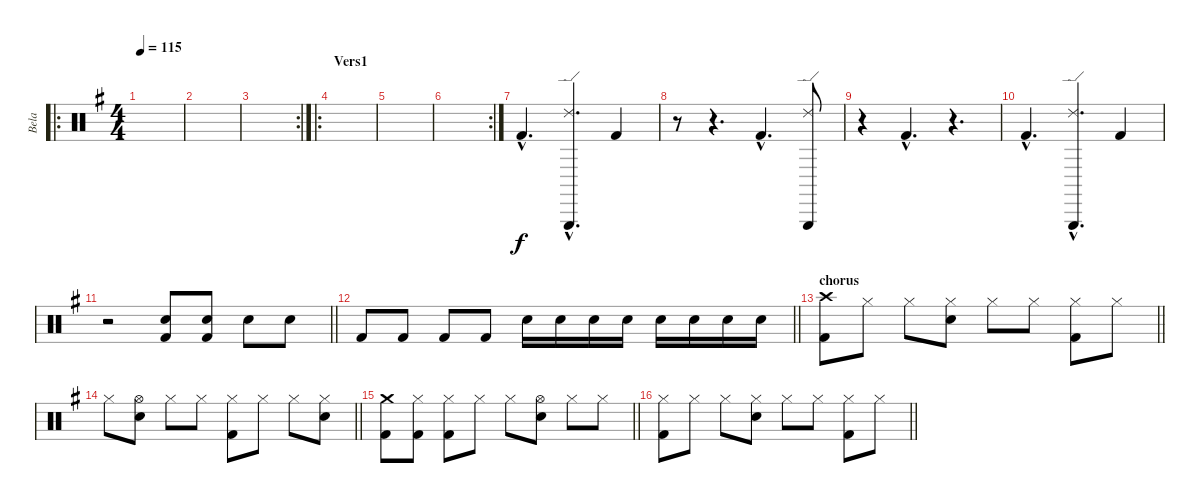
\track ("Bela" "Bela") {instrument percussion}
\staff {score}
\articulation defaults
\ro
\ts (4 4)
\tempo 115
\clef neutral
\ks eminor
|
|
\rc 2
|
\ro
\section ("" "Vers1")
|
|
\rc 2
|
"Kick (hit) 2"{hac}.4{d} ("Ride (edge) 2"{hac} "Triangle (hit)"{hac}).4{d} "Kick (hit) 2".4 |
r.8 r.4{d} "Kick (hit) 2"{hac}.4{d} ("Ride (edge) 2" "Triangle (hit)").8 |
r.4 "Kick (hit) 2"{hac}.4{d} r.4{d} |
"Kick (hit) 2"{hac}.4{d} ("Ride (edge) 2"{hac} "Triangle (hit)"{hac}).4{d} "Kick (hit) 2".4 |
\barLineRight lightlight
r.2 ("Electric Snare (hit)" "Kick (hit) 2").8 ("Electric Snare (hit)" "Kick (hit) 2").8 "Electric Snare (hit)".8 "Electric Snare (hit)".8 |
\barLineRight lightlight "Kick (hit) 2".8 "Kick (hit) 2".8 "Kick (hit) 2".8 "Kick (hit) 2".8 "Electric Snare (hit)".16 "Electric Snare (hit)".16 "Electric Snare (hit)".16 "Electric Snare (hit)".16 "Electric Snare (hit)".16 "Electric Snare (hit)".16 "Electric Snare (hit)".16 "Electric Snare (hit)".16
|
\section ("" "chorus")
\barLineRight lightlight
("Crash high (hit)" "Kick (hit) 2").8 "Hi-Hat (closed)".8 "Hi-Hat (closed)".8 ("Hi-Hat (closed)" "Electric Snare (hit)").8 "Hi-Hat (closed)".8 "Hi-Hat (closed)".8 ("Hi-Hat (closed)" "Kick (hit) 2").8 "Hi-Hat (closed)".8 |
\barLineRight lightlight "Hi-Hat (closed)".8
("Hi-Hat (open)" "Electric Snare (hit)").8 "Hi-Hat (closed)".8 "Hi-Hat (closed)".8 ("Hi-Hat (closed)" "Kick (hit) 2").8 "Hi-Hat (closed)".8 "Hi-Hat (closed)".8 ("Hi-Hat (closed)" "Electric Snare (hit)").8 |
\barLineRight lightlight
("Crash medium (hit)" "Kick (hit) 2").8 ("Hi-Hat (closed)" "Kick (hit) 2").8 ("Hi-Hat (closed)" "Kick (hit) 2").8 "Hi-Hat (closed)".8 "Hi-Hat (closed)".8 ("Hi-Hat (open)" "Electric Snare (hit)").8 "Hi-Hat (closed)".8 "Hi-Hat (closed)".8 |
\barLineRight lightlight
("Hi-Hat (closed)" "Kick (hit) 2").8 "Hi-Hat (closed)".8 "Hi-Hat (closed)".8 ("Hi-Hat (closed)" "Electric Snare (hit)").8 "Hi-Hat (closed)".8 "Hi-Hat (closed)".8 ("Hi-Hat (closed)" "Kick (hit) 2").8 "Hi-Hat (closed)".8
